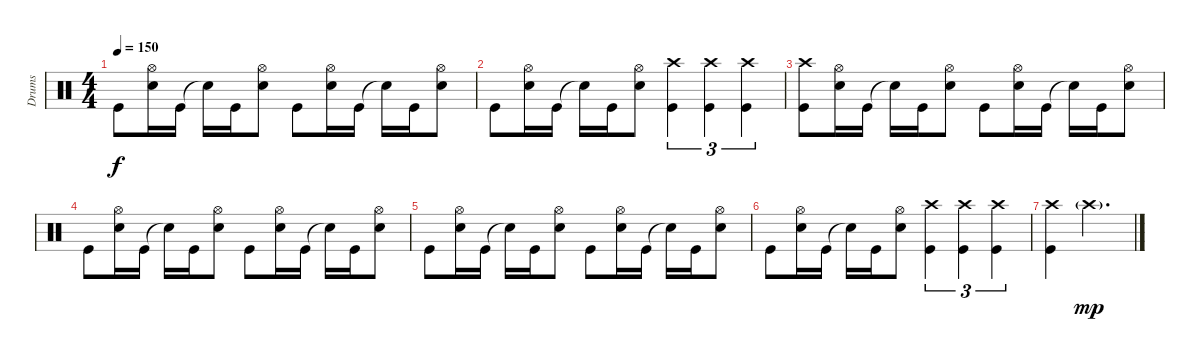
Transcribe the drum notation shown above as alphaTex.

\track ("Drums" "Drums") {instrument percussion}
\staff {score}
\articulation defaults
\ts (4 4)
\tempo 150
\clef neutral
\ks c "Kick (hit)".8{dy f}
("Snare (hit) 2" "Hi-Hat (open)").16 "Kick (hit)".16 "Snare (hit)"{t}.16 "Kick (hit)".16 ("Snare (hit) 2" "Hi-Hat (open)").8 "Kick (hit)".8 ("Snare (hit) 2" "Hi-Hat (open)").16 "Kick (hit)".16 "Snare (hit)"{t}.16 "Kick (hit)".16 ("Snare (hit) 2" "Hi-Hat (open)").8 |
"Kick (hit)".8 ("Snare (hit) 2" "Hi-Hat (open)").16 "Kick (hit)".16 "Snare (hit)"{t}.16 "Kick (hit)".16 ("Snare (hit) 2" "Hi-Hat (open)").8 ("Kick (hit)" "Crash high (hit)").4{tu (3 2)} ("Kick (hit)" "Crash high (hit)").4{tu (3 2)} ("Kick (hit)" "Crash high (hit)").4{tu (3 2)} |
("Kick (hit)" "Crash high (hit)").8 ("Snare (hit) 2" "Hi-Hat (open)").16 "Kick (hit)".16 "Snare (hit)"{t}.16 "Kick (hit)".16 ("Snare (hit) 2" "Hi-Hat (open)").8 "Kick (hit)".8 ("Snare (hit) 2" "Hi-Hat (open)").16 "Kick (hit)".16 "Snare (hit)"{t}.16 "Kick (hit)".16 ("Snare (hit) 2" "Hi-Hat (open)").8 |
"Kick (hit)".8 ("Snare (hit) 2" "Hi-Hat (open)").16 "Kick (hit)".16 "Snare (hit)"{t}.16 "Kick (hit)".16 ("Snare (hit) 2" "Hi-Hat (open)").8 "Kick (hit)".8 ("Snare (hit) 2" "Hi-Hat (open)").16 "Kick (hit)".16 "Snare (hit)"{t}.16 "Kick (hit)".16 ("Snare (hit) 2" "Hi-Hat (open)").8 |
"Kick (hit)".8 ("Snare (hit) 2" "Hi-Hat (open)").16 "Kick (hit)".16 "Snare (hit)"{t}.16 "Kick (hit)".16 ("Snare (hit) 2" "Hi-Hat (open)").8 "Kick (hit)".8 ("Snare (hit) 2" "Hi-Hat (open)").16 "Kick (hit)".16 "Snare (hit)"{t}.16 "Kick (hit)".16 ("Snare (hit) 2" "Hi-Hat (open)").8 |
"Kick (hit)".8 ("Snare (hit) 2" "Hi-Hat (open)").16 "Kick (hit)".16 "Snare (hit)"{t}.16 "Kick (hit)".16 ("Snare (hit) 2" "Hi-Hat (open)").8 ("Kick (hit)" "Crash high (hit)").4{tu (3 2)} ("Kick (hit)" "Crash high (hit)").4{tu (3 2)} ("Kick (hit)" "Crash high (hit)").4{tu (3 2)} |
("Kick (hit)" "Crash high (hit)").4 "Crash high (hit)"{g}.2{d dy mp}
